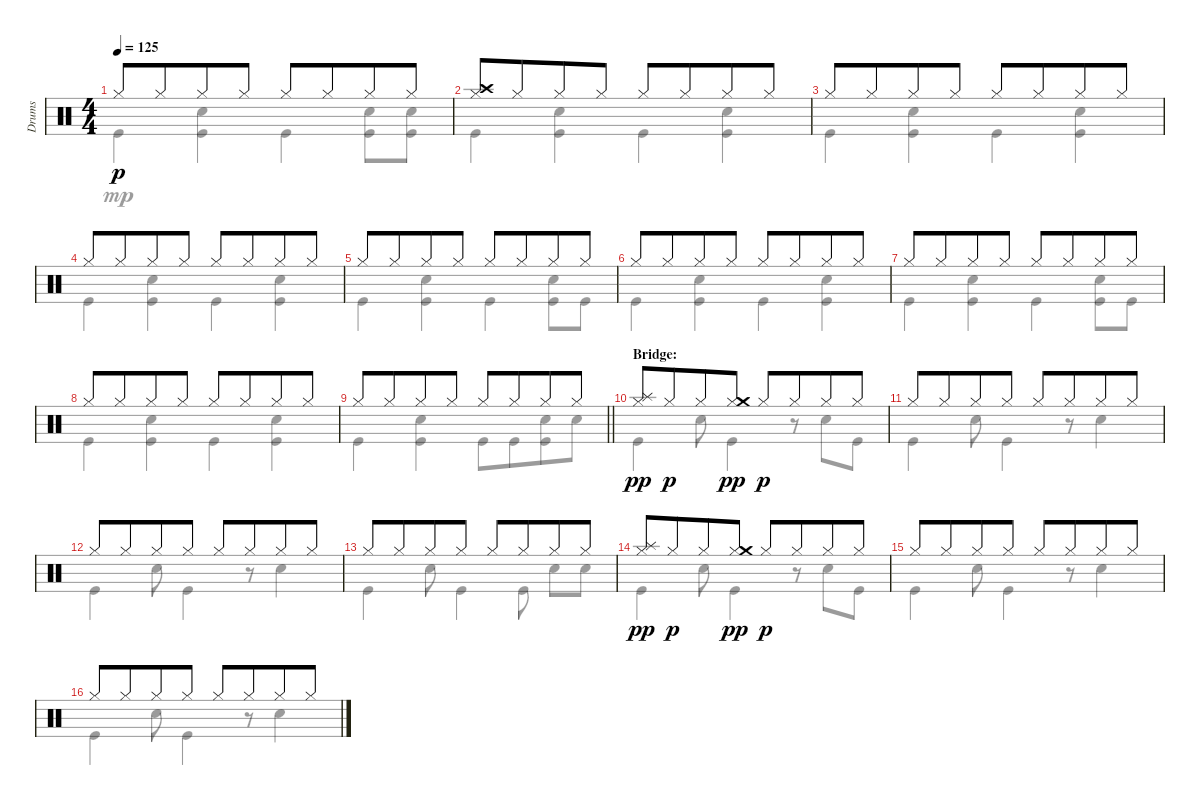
\track ("Drums" "Drums") {instrument percussion}
\staff {score}
\articulation defaults
\voice
\ts (4 4)
\tempo 125
\clef neutral
\ks c "Hi-Hat (closed)".8{dy p} "Hi-Hat (closed)".8{beam merge} "Hi-Hat (closed)".8 "Hi-Hat (closed)".8 "Hi-Hat (closed)".8 "Hi-Hat (closed)".8{beam merge} "Hi-Hat (closed)".8 "Hi-Hat (closed)".8
|
("Hi-Hat (closed)" "Crash high (hit)").8 "Hi-Hat (closed)".8{beam merge} "Hi-Hat (closed)".8 "Hi-Hat (closed)".8 "Hi-Hat (closed)".8 "Hi-Hat (closed)".8{beam merge} "Hi-Hat (closed)".8 "Hi-Hat (closed)".8 |
"Hi-Hat (closed)".8 "Hi-Hat (closed)".8{beam merge} "Hi-Hat (closed)".8 "Hi-Hat (closed)".8 "Hi-Hat (closed)".8 "Hi-Hat (closed)".8{beam merge} "Hi-Hat (closed)".8 "Hi-Hat (closed)".8 |
"Hi-Hat (closed)".8 "Hi-Hat (closed)".8{beam merge} "Hi-Hat (closed)".8 "Hi-Hat (closed)".8 "Hi-Hat (closed)".8 "Hi-Hat (closed)".8{beam merge} "Hi-Hat (closed)".8 "Hi-Hat (closed)".8 |
"Hi-Hat (closed)".8 "Hi-Hat (closed)".8{beam merge} "Hi-Hat (closed)".8 "Hi-Hat (closed)".8 "Hi-Hat (closed)".8 "Hi-Hat (closed)".8{beam merge} "Hi-Hat (closed)".8 "Hi-Hat (closed)".8 |
"Hi-Hat (closed)".8 "Hi-Hat (closed)".8{beam merge} "Hi-Hat (closed)".8 "Hi-Hat (closed)".8 "Hi-Hat (closed)".8 "Hi-Hat (closed)".8{beam merge} "Hi-Hat (closed)".8 "Hi-Hat (closed)".8 |
"Hi-Hat (closed)".8 "Hi-Hat (closed)".8{beam merge} "Hi-Hat (closed)".8 "Hi-Hat (closed)".8 "Hi-Hat (closed)".8 "Hi-Hat (closed)".8{beam merge} "Hi-Hat (closed)".8 "Hi-Hat (closed)".8 |
"Hi-Hat (closed)".8 "Hi-Hat (closed)".8{beam merge} "Hi-Hat (closed)".8 "Hi-Hat (closed)".8 "Hi-Hat (closed)".8 "Hi-Hat (closed)".8{beam merge} "Hi-Hat (closed)".8 "Hi-Hat (closed)".8 |
\barLineRight lightlight "Hi-Hat (closed)".8 "Hi-Hat (closed)".8{beam merge} "Hi-Hat (closed)".8 "Hi-Hat (closed)".8 "Hi-Hat (closed)".8 "Hi-Hat (closed)".8{beam merge} "Hi-Hat (closed)".8 "Hi-Hat (closed)".8
|
\section ("" "Bridge:")
("Hi-Hat (closed)" "Splash (hit)").8{dy pp} "Hi-Hat (closed)".8{dy p beam merge} "Hi-Hat (closed)".8 ("Hi-Hat (closed)" "Crash medium (hit)").8{dy pp} "Hi-Hat (closed)".8{dy p} "Hi-Hat (closed)".8{beam merge} "Hi-Hat (closed)".8 "Hi-Hat (closed)".8 |
"Hi-Hat (closed)".8 "Hi-Hat (closed)".8{beam merge} "Hi-Hat (closed)".8 "Hi-Hat (closed)".8 "Hi-Hat (closed)".8 "Hi-Hat (closed)".8{beam merge} "Hi-Hat (closed)".8 "Hi-Hat (closed)".8 |
"Hi-Hat (closed)".8 "Hi-Hat (closed)".8{beam merge} "Hi-Hat (closed)".8 "Hi-Hat (closed)".8 "Hi-Hat (closed)".8 "Hi-Hat (closed)".8{beam merge} "Hi-Hat (closed)".8 "Hi-Hat (closed)".8 |
"Hi-Hat (closed)".8 "Hi-Hat (closed)".8{beam merge} "Hi-Hat (closed)".8 "Hi-Hat (closed)".8 "Hi-Hat (closed)".8 "Hi-Hat (closed)".8{beam merge} "Hi-Hat (closed)".8 "Hi-Hat (closed)".8 |
("Hi-Hat (closed)" "Splash (hit)").8{dy pp} "Hi-Hat (closed)".8{dy p beam merge} "Hi-Hat (closed)".8 ("Hi-Hat (closed)" "Crash medium (hit)").8{dy pp} "Hi-Hat (closed)".8{dy p} "Hi-Hat (closed)".8{beam merge} "Hi-Hat (closed)".8 "Hi-Hat (closed)".8 |
"Hi-Hat (closed)".8 "Hi-Hat (closed)".8{beam merge} "Hi-Hat (closed)".8 "Hi-Hat (closed)".8 "Hi-Hat (closed)".8 "Hi-Hat (closed)".8{beam merge} "Hi-Hat (closed)".8 "Hi-Hat (closed)".8 |
"Hi-Hat (closed)".8 "Hi-Hat (closed)".8{beam merge} "Hi-Hat (closed)".8 "Hi-Hat (closed)".8 "Hi-Hat (closed)".8 "Hi-Hat (closed)".8{beam merge} "Hi-Hat (closed)".8 "Hi-Hat (closed)".8
\voice
\clef neutral
\ottava regular
\simile none
\ks c "Kick (hit)".4{dy mp}
("Snare (hit) 2" "Kick (hit)").4 "Kick (hit)".4 ("Snare (hit) 2" "Kick (hit)").8 ("Snare (hit) 2" "Kick (hit)").8 |
"Kick (hit)".4 ("Snare (hit) 2" "Kick (hit)").4 "Kick (hit)".4 ("Snare (hit) 2" "Kick (hit)").4 |
"Kick (hit)".4 ("Snare (hit) 2" "Kick (hit)").4 "Kick (hit)".4 ("Snare (hit) 2" "Kick (hit)").4 |
"Kick (hit)".4 ("Snare (hit) 2" "Kick (hit)").4 "Kick (hit)".4 ("Snare (hit) 2" "Kick (hit)").4 |
"Kick (hit)".4 ("Snare (hit) 2" "Kick (hit)").4 "Kick (hit)".4 ("Snare (hit) 2" "Kick (hit)").8 "Kick (hit)".8 |
"Kick (hit)".4 ("Snare (hit) 2" "Kick (hit)").4 "Kick (hit)".4 ("Snare (hit) 2" "Kick (hit)").4 |
"Kick (hit)".4 ("Snare (hit) 2" "Kick (hit)").4 "Kick (hit)".4 ("Snare (hit) 2" "Kick (hit)").8 "Kick (hit)".8 |
"Kick (hit)".4 ("Snare (hit) 2" "Kick (hit)").4 "Kick (hit)".4 ("Snare (hit) 2" "Kick (hit)").4 |
\barLineRight lightlight "Kick (hit)".4
("Snare (hit) 2" "Kick (hit)").4 "Kick (hit)".8 "Kick (hit)".8{beam merge} ("Snare (hit) 2" "Kick (hit)").8 "Snare (hit) 2".8 |
"Kick (hit)".4 "Snare (hit) 2".8 "Kick (hit)".4 r.8 "Snare (hit) 2".8 "Kick (hit)".8 |
"Kick (hit)".4 "Snare (hit) 2".8 "Kick (hit)".4 r.8 "Snare (hit) 2".4 |
"Kick (hit)".4 "Snare (hit) 2".8 "Kick (hit)".4 r.8 "Snare (hit) 2".4 |
"Kick (hit)".4 "Snare (hit) 2".8 "Kick (hit)".4 "Kick (hit)".8 "Snare (hit) 2".8 "Snare (hit) 2".8 |
"Kick (hit)".4 "Snare (hit) 2".8 "Kick (hit)".4 r.8 "Snare (hit) 2".8 "Kick (hit)".8 |
"Kick (hit)".4 "Snare (hit) 2".8 "Kick (hit)".4 r.8 "Snare (hit) 2".4 |
"Kick (hit)".4 "Snare (hit) 2".8 "Kick (hit)".4 r.8 "Snare (hit) 2".4
